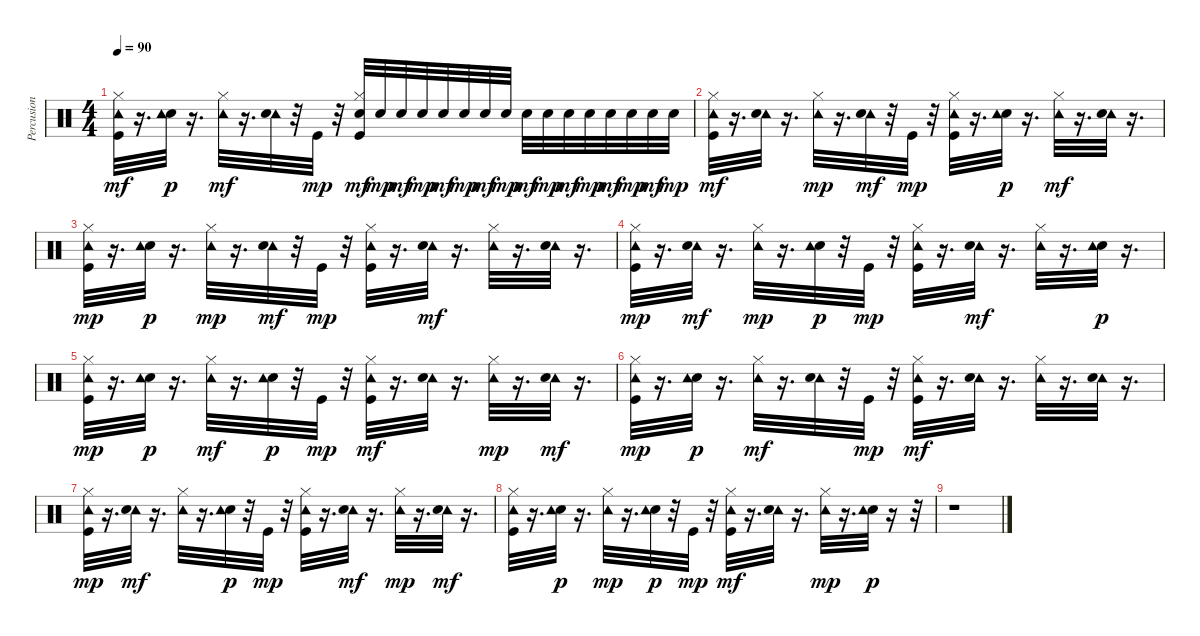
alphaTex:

\track ("Percusion" "Percusion") {instrument percussion}
\staff {score}
\articulation defaults
\ts (4 4)
\tempo 90
\clef neutral
\ks c
("Kick (hit)" "Tambourine (hit)" "Hi-Hat (closed)").32{dy mf} r.16{d} ("Snare (hit) 2" "Tambourine (hit)").32{dy p} r.16{d} ("Tambourine (hit)" "Hi-Hat (closed)").32{dy mf} r.16{d} ("Tambourine (hit)" "Snare (hit) 2").32 r.32 "Kick (hit)".32{dy mp} r.32 ("Kick (hit)" "Hi-Hat (closed)" "Snare (hit) 2").32{dy mf} "Snare (hit) 2".32{dy mp} "Snare (hit) 2".32{dy mf} "Snare (hit) 2".32{dy mp} "Snare (hit) 2".32{dy mf} "Snare (hit) 2".32{dy mp} "Snare (hit) 2".32{dy mf} "Snare (hit) 2".32{dy mp} "Snare (hit) 2".32{dy mf} "Snare (hit) 2".32{dy mp} "Snare (hit) 2".32{dy mf} "Snare (hit) 2".32{dy mp} "Snare (hit) 2".32{dy mf} "Snare (hit) 2".32{dy mp} "Snare (hit) 2".32{dy mf} "Snare (hit) 2".32{dy mp} |
("Kick (hit)" "Tambourine (hit)" "Hi-Hat (closed)").32{dy mf} r.16{d} ("Tambourine (hit)" "Snare (hit) 2").32 r.16{d} ("Hi-Hat (closed)" "Tambourine (hit)").32{dy mp} r.16{d} ("Tambourine (hit)" "Snare (hit) 2").32{dy mf} r.32 "Kick (hit)".32{dy mp} r.32 ("Hi-Hat (closed)" "Tambourine (hit)" "Kick (hit)").32 r.16{d} ("Snare (hit) 2" "Tambourine (hit)").32{dy p} r.16{d} ("Tambourine (hit)" "Hi-Hat (closed)").32{dy mf} r.16{d} ("Tambourine (hit)" "Snare (hit) 2").32 r.16{d} |
("Hi-Hat (closed)" "Tambourine (hit)" "Kick (hit)").32{dy mp} r.16{d} ("Snare (hit) 2" "Tambourine (hit)").32{dy p} r.16{d} ("Hi-Hat (closed)" "Tambourine (hit)").32{dy mp} r.16{d} ("Tambourine (hit)" "Snare (hit) 2").32{dy mf} r.32 "Kick (hit)".32{dy mp} r.32 ("Hi-Hat (closed)" "Kick (hit)" "Tambourine (hit)").32 r.16{d} ("Tambourine (hit)" "Snare (hit) 2").32{dy mf} r.16{d} ("Tambourine (hit)" "Hi-Hat (closed)").32 r.16{d} ("Tambourine (hit)" "Snare (hit) 2").32 r.16{d} |
("Tambourine (hit)" "Hi-Hat (closed)" "Kick (hit)").32{dy mp} r.16{d} ("Tambourine (hit)" "Snare (hit) 2").32{dy mf} r.16{d} ("Hi-Hat (closed)" "Tambourine (hit)").32{dy mp} r.16{d} ("Snare (hit) 2" "Tambourine (hit)").32{dy p} r.32 "Kick (hit)".32{dy mp} r.32 ("Tambourine (hit)" "Hi-Hat (closed)" "Kick (hit)").32 r.16{d} ("Tambourine (hit)" "Snare (hit) 2").32{dy mf} r.16{d} ("Tambourine (hit)" "Hi-Hat (closed)").32 r.16{d} ("Snare (hit) 2" "Tambourine (hit)").32{dy p} r.16{d} |
("Kick (hit)" "Hi-Hat (closed)" "Tambourine (hit)").32{dy mp} r.16{d} ("Snare (hit) 2" "Tambourine (hit)").32{dy p} r.16{d} ("Tambourine (hit)" "Hi-Hat (closed)").32{dy mf} r.16{d} ("Snare (hit) 2" "Tambourine (hit)").32{dy p} r.32 "Kick (hit)".32{dy mp} r.32 ("Kick (hit)" "Tambourine (hit)" "Hi-Hat (closed)").32{dy mf} r.16{d} ("Tambourine (hit)" "Snare (hit) 2").32 r.16{d} ("Hi-Hat (closed)" "Tambourine (hit)").32{dy mp} r.16{d} ("Tambourine (hit)" "Snare (hit) 2").32{dy mf} r.16{d} |
("Kick (hit)" "Hi-Hat (closed)" "Tambourine (hit)").32{dy mp} r.16{d} ("Snare (hit) 2" "Tambourine (hit)").32{dy p} r.16{d} ("Tambourine (hit)" "Hi-Hat (closed)").32{dy mf} r.16{d} ("Tambourine (hit)" "Snare (hit) 2").32 r.32 "Kick (hit)".32{dy mp} r.32 ("Tambourine (hit)" "Kick (hit)" "Hi-Hat (closed)").32{dy mf} r.16{d} ("Tambourine (hit)" "Snare (hit) 2").32 r.16{d} ("Tambourine (hit)" "Hi-Hat (closed)").32 r.16{d} ("Tambourine (hit)" "Snare (hit) 2").32 r.16{d} |
("Tambourine (hit)" "Hi-Hat (closed)" "Kick (hit)").32{dy mp} r.16{d} ("Tambourine (hit)" "Snare (hit) 2").32{dy mf} r.16{d} ("Tambourine (hit)" "Hi-Hat (closed)").32 r.16{d} ("Snare (hit) 2" "Tambourine (hit)").32{dy p} r.32 "Kick (hit)".32{dy mp} r.32 ("Hi-Hat (closed)" "Tambourine (hit)" "Kick (hit)").32 r.16{d} ("Tambourine (hit)" "Snare (hit) 2").32{dy mf} r.16{d} ("Hi-Hat (closed)" "Tambourine (hit)").32{dy mp} r.16{d} ("Tambourine (hit)" "Snare (hit) 2").32{dy mf} r.16{d} |
("Tambourine (hit)" "Kick (hit)" "Hi-Hat (closed)").32 r.16{d} ("Snare (hit) 2" "Tambourine (hit)").32{dy p} r.16{d} ("Hi-Hat (closed)" "Tambourine (hit)").32{dy mp} r.16{d} ("Snare (hit) 2" "Tambourine (hit)").32{dy p} r.32 "Kick (hit)".32{dy mp} r.32 ("Kick (hit)" "Tambourine (hit)" "Hi-Hat (closed)").32{dy mf} r.16{d} ("Tambourine (hit)" "Snare (hit) 2").32 r.16{d} ("Hi-Hat (closed)" "Tambourine (hit)").32{dy mp} r.16{d} ("Snare (hit) 2" "Tambourine (hit)").32{dy p} r.16 r.32 |
r.1
